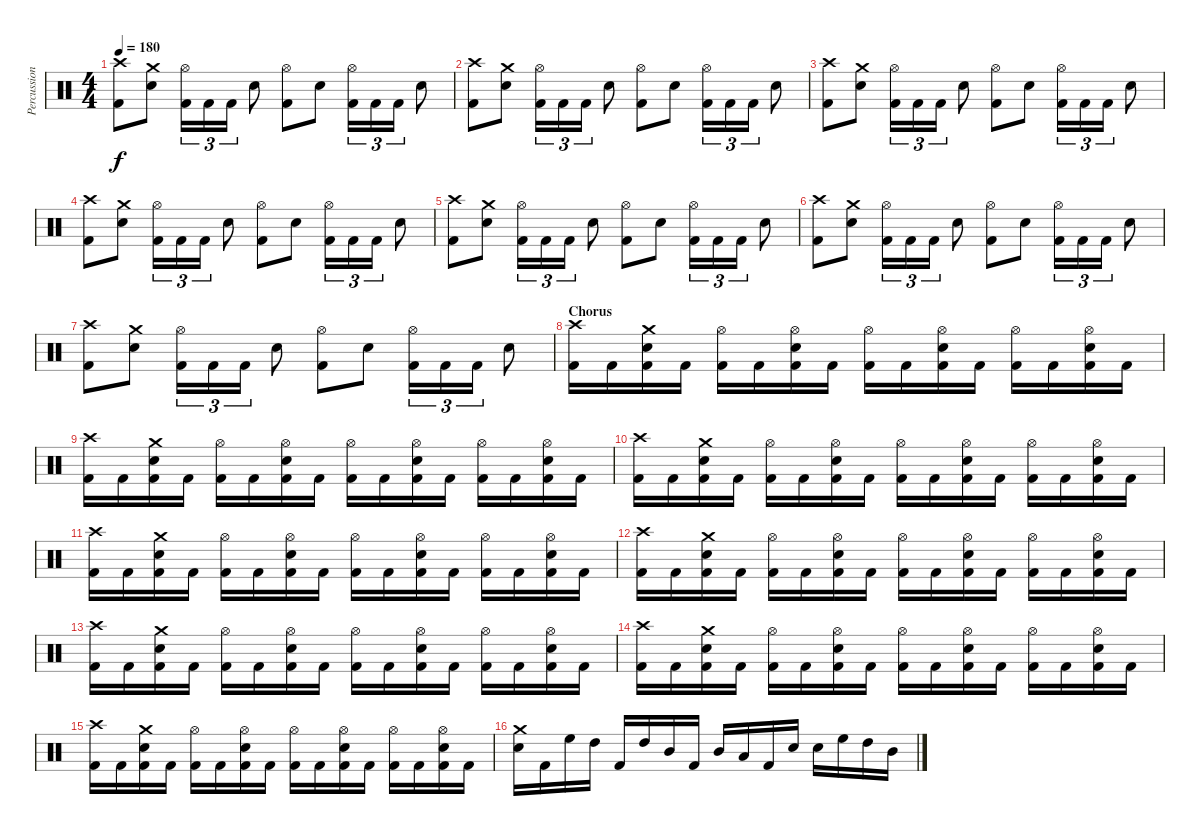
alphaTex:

\track ("Percussion" "Percussion") {instrument percussion}
\staff {score}
\articulation defaults
\ts (4 4)
\tempo 180
\clef neutral
\ks c
("Crash high (hit)" "Kick (hit) 2").8{dy f} ("Crash medium (hit)" "Snare (hit) 2").8 ("Hi-Hat (open)" "Kick (hit) 2").16{tu (3 2)} "Kick (hit) 2".16{tu (3 2)} "Kick (hit) 2".16{tu (3 2)} "Snare (hit) 2".8 ("Hi-Hat (open)" "Kick (hit) 2").8 "Snare (hit) 2".8 ("Hi-Hat (open)" "Kick (hit) 2").16{tu (3 2)} "Kick (hit) 2".16{tu (3 2)} "Kick (hit) 2".16{tu (3 2)} "Snare (hit) 2".8 |
("Crash high (hit)" "Kick (hit) 2").8 ("Crash medium (hit)" "Snare (hit) 2").8 ("Hi-Hat (open)" "Kick (hit) 2").16{tu (3 2)} "Kick (hit) 2".16{tu (3 2)} "Kick (hit) 2".16{tu (3 2)} "Snare (hit) 2".8 ("Hi-Hat (open)" "Kick (hit) 2").8 "Snare (hit) 2".8 ("Hi-Hat (open)" "Kick (hit) 2").16{tu (3 2)} "Kick (hit) 2".16{tu (3 2)} "Kick (hit) 2".16{tu (3 2)} "Snare (hit) 2".8 |
("Crash high (hit)" "Kick (hit) 2").8 ("Crash medium (hit)" "Snare (hit) 2").8 ("Hi-Hat (open)" "Kick (hit) 2").16{tu (3 2)} "Kick (hit) 2".16{tu (3 2)} "Kick (hit) 2".16{tu (3 2)} "Snare (hit) 2".8 ("Hi-Hat (open)" "Kick (hit) 2").8 "Snare (hit) 2".8 ("Hi-Hat (open)" "Kick (hit) 2").16{tu (3 2)} "Kick (hit) 2".16{tu (3 2)} "Kick (hit) 2".16{tu (3 2)} "Snare (hit) 2".8 |
("Crash high (hit)" "Kick (hit) 2").8 ("Crash medium (hit)" "Snare (hit) 2").8 ("Hi-Hat (open)" "Kick (hit) 2").16{tu (3 2)} "Kick (hit) 2".16{tu (3 2)} "Kick (hit) 2".16{tu (3 2)} "Snare (hit) 2".8 ("Hi-Hat (open)" "Kick (hit) 2").8 "Snare (hit) 2".8 ("Hi-Hat (open)" "Kick (hit) 2").16{tu (3 2)} "Kick (hit) 2".16{tu (3 2)} "Kick (hit) 2".16{tu (3 2)} "Snare (hit) 2".8 |
("Crash high (hit)" "Kick (hit) 2").8 ("Crash medium (hit)" "Snare (hit) 2").8 ("Hi-Hat (open)" "Kick (hit) 2").16{tu (3 2)} "Kick (hit) 2".16{tu (3 2)} "Kick (hit) 2".16{tu (3 2)} "Snare (hit) 2".8 ("Hi-Hat (open)" "Kick (hit) 2").8 "Snare (hit) 2".8 ("Hi-Hat (open)" "Kick (hit) 2").16{tu (3 2)} "Kick (hit) 2".16{tu (3 2)} "Kick (hit) 2".16{tu (3 2)} "Snare (hit) 2".8 |
("Crash high (hit)" "Kick (hit) 2").8 ("Crash medium (hit)" "Snare (hit) 2").8 ("Hi-Hat (open)" "Kick (hit) 2").16{tu (3 2)} "Kick (hit) 2".16{tu (3 2)} "Kick (hit) 2".16{tu (3 2)} "Snare (hit) 2".8 ("Hi-Hat (open)" "Kick (hit) 2").8 "Snare (hit) 2".8 ("Hi-Hat (open)" "Kick (hit) 2").16{tu (3 2)} "Kick (hit) 2".16{tu (3 2)} "Kick (hit) 2".16{tu (3 2)} "Snare (hit) 2".8 |
("Crash high (hit)" "Kick (hit) 2").8 ("Crash medium (hit)" "Snare (hit) 2").8 ("Hi-Hat (open)" "Kick (hit) 2").16{tu (3 2)} "Kick (hit) 2".16{tu (3 2)} "Kick (hit) 2".16{tu (3 2)} "Snare (hit) 2".8 ("Hi-Hat (open)" "Kick (hit) 2").8 "Snare (hit) 2".8 ("Hi-Hat (open)" "Kick (hit) 2").16{tu (3 2)} "Kick (hit) 2".16{tu (3 2)} "Kick (hit) 2".16{tu (3 2)} "Snare (hit) 2".8 |
\section ("" "Chorus")
("Crash high (hit)" "Kick (hit) 2").16 "Kick (hit) 2".16 ("Crash medium (hit)" "Snare (hit) 2" "Kick (hit) 2").16 "Kick (hit) 2".16 ("Hi-Hat (open)" "Kick (hit) 2").16 "Kick (hit) 2".16 ("Hi-Hat (open)" "Snare (hit) 2" "Kick (hit) 2").16 "Kick (hit) 2".16 ("Hi-Hat (open)" "Kick (hit) 2").16 "Kick (hit) 2".16 ("Hi-Hat (open)" "Snare (hit) 2" "Kick (hit) 2").16 "Kick (hit) 2".16 ("Hi-Hat (open)" "Kick (hit) 2").16 "Kick (hit) 2".16 ("Hi-Hat (open)" "Snare (hit) 2" "Kick (hit) 2").16 "Kick (hit) 2".16 |
("Crash high (hit)" "Kick (hit) 2").16 "Kick (hit) 2".16 ("Crash medium (hit)" "Snare (hit) 2" "Kick (hit) 2").16 "Kick (hit) 2".16 ("Hi-Hat (open)" "Kick (hit) 2").16 "Kick (hit) 2".16 ("Hi-Hat (open)" "Snare (hit) 2" "Kick (hit) 2").16 "Kick (hit) 2".16 ("Hi-Hat (open)" "Kick (hit) 2").16 "Kick (hit) 2".16 ("Hi-Hat (open)" "Snare (hit) 2" "Kick (hit) 2").16 "Kick (hit) 2".16 ("Hi-Hat (open)" "Kick (hit) 2").16 "Kick (hit) 2".16 ("Hi-Hat (open)" "Snare (hit) 2" "Kick (hit) 2").16 "Kick (hit) 2".16 |
("Crash high (hit)" "Kick (hit) 2").16 "Kick (hit) 2".16 ("Crash medium (hit)" "Snare (hit) 2" "Kick (hit) 2").16 "Kick (hit) 2".16 ("Hi-Hat (open)" "Kick (hit) 2").16 "Kick (hit) 2".16 ("Hi-Hat (open)" "Snare (hit) 2" "Kick (hit) 2").16 "Kick (hit) 2".16 ("Hi-Hat (open)" "Kick (hit) 2").16 "Kick (hit) 2".16 ("Hi-Hat (open)" "Snare (hit) 2" "Kick (hit) 2").16 "Kick (hit) 2".16 ("Hi-Hat (open)" "Kick (hit) 2").16 "Kick (hit) 2".16 ("Hi-Hat (open)" "Snare (hit) 2" "Kick (hit) 2").16 "Kick (hit) 2".16 |
("Crash high (hit)" "Kick (hit) 2").16 "Kick (hit) 2".16 ("Crash medium (hit)" "Snare (hit) 2" "Kick (hit) 2").16 "Kick (hit) 2".16 ("Hi-Hat (open)" "Kick (hit) 2").16 "Kick (hit) 2".16 ("Hi-Hat (open)" "Snare (hit) 2" "Kick (hit) 2").16 "Kick (hit) 2".16 ("Hi-Hat (open)" "Kick (hit) 2").16 "Kick (hit) 2".16 ("Hi-Hat (open)" "Snare (hit) 2" "Kick (hit) 2").16 "Kick (hit) 2".16 ("Hi-Hat (open)" "Kick (hit) 2").16 "Kick (hit) 2".16 ("Hi-Hat (open)" "Snare (hit) 2" "Kick (hit) 2").16 "Kick (hit) 2".16 |
("Crash high (hit)" "Kick (hit) 2").16 "Kick (hit) 2".16 ("Crash medium (hit)" "Snare (hit) 2" "Kick (hit) 2").16 "Kick (hit) 2".16 ("Hi-Hat (open)" "Kick (hit) 2").16 "Kick (hit) 2".16 ("Hi-Hat (open)" "Snare (hit) 2" "Kick (hit) 2").16 "Kick (hit) 2".16 ("Hi-Hat (open)" "Kick (hit) 2").16 "Kick (hit) 2".16 ("Hi-Hat (open)" "Snare (hit) 2" "Kick (hit) 2").16 "Kick (hit) 2".16 ("Hi-Hat (open)" "Kick (hit) 2").16 "Kick (hit) 2".16 ("Hi-Hat (open)" "Snare (hit) 2" "Kick (hit) 2").16 "Kick (hit) 2".16 |
("Crash high (hit)" "Kick (hit) 2").16 "Kick (hit) 2".16 ("Crash medium (hit)" "Snare (hit) 2" "Kick (hit) 2").16 "Kick (hit) 2".16 ("Hi-Hat (open)" "Kick (hit) 2").16 "Kick (hit) 2".16 ("Hi-Hat (open)" "Snare (hit) 2" "Kick (hit) 2").16 "Kick (hit) 2".16 ("Hi-Hat (open)" "Kick (hit) 2").16 "Kick (hit) 2".16 ("Hi-Hat (open)" "Snare (hit) 2" "Kick (hit) 2").16 "Kick (hit) 2".16 ("Hi-Hat (open)" "Kick (hit) 2").16 "Kick (hit) 2".16 ("Hi-Hat (open)" "Snare (hit) 2" "Kick (hit) 2").16 "Kick (hit) 2".16 |
("Crash high (hit)" "Kick (hit) 2").16 "Kick (hit) 2".16 ("Crash medium (hit)" "Snare (hit) 2" "Kick (hit) 2").16 "Kick (hit) 2".16 ("Hi-Hat (open)" "Kick (hit) 2").16 "Kick (hit) 2".16 ("Hi-Hat (open)" "Snare (hit) 2" "Kick (hit) 2").16 "Kick (hit) 2".16 ("Hi-Hat (open)" "Kick (hit) 2").16 "Kick (hit) 2".16 ("Hi-Hat (open)" "Snare (hit) 2" "Kick (hit) 2").16 "Kick (hit) 2".16 ("Hi-Hat (open)" "Kick (hit) 2").16 "Kick (hit) 2".16 ("Hi-Hat (open)" "Snare (hit) 2" "Kick (hit) 2").16 "Kick (hit) 2".16 |
("Crash high (hit)" "Kick (hit) 2").16 "Kick (hit) 2".16 ("Crash medium (hit)" "Snare (hit) 2" "Kick (hit) 2").16 "Kick (hit) 2".16 ("Hi-Hat (open)" "Kick (hit) 2").16 "Kick (hit) 2".16 ("Hi-Hat (open)" "Snare (hit) 2" "Kick (hit) 2").16 "Kick (hit) 2".16 ("Hi-Hat (open)" "Kick (hit) 2").16 "Kick (hit) 2".16 ("Hi-Hat (open)" "Snare (hit) 2" "Kick (hit) 2").16 "Kick (hit) 2".16 ("Hi-Hat (open)" "Kick (hit) 2").16 "Kick (hit) 2".16 ("Hi-Hat (open)" "Snare (hit) 2" "Kick (hit) 2").16 "Kick (hit) 2".16 |
("Crash medium (hit)" "Snare (hit) 2").16 "Kick (hit) 2".16 "High Floor Tom (hit)".16 "High Tom (hit)".16 "Kick (hit) 2".16 "High Tom (hit)".16 "Mid Tom (hit)".16 "Kick (hit) 2".16 "Mid Tom (hit)".16 "Low Tom (hit)".16 "Kick (hit) 2".16 "Snare (hit) 2".16 "Snare (hit) 2".16 "High Floor Tom (hit)".16 "High Tom (hit)".16 "Mid Tom (hit)".16
